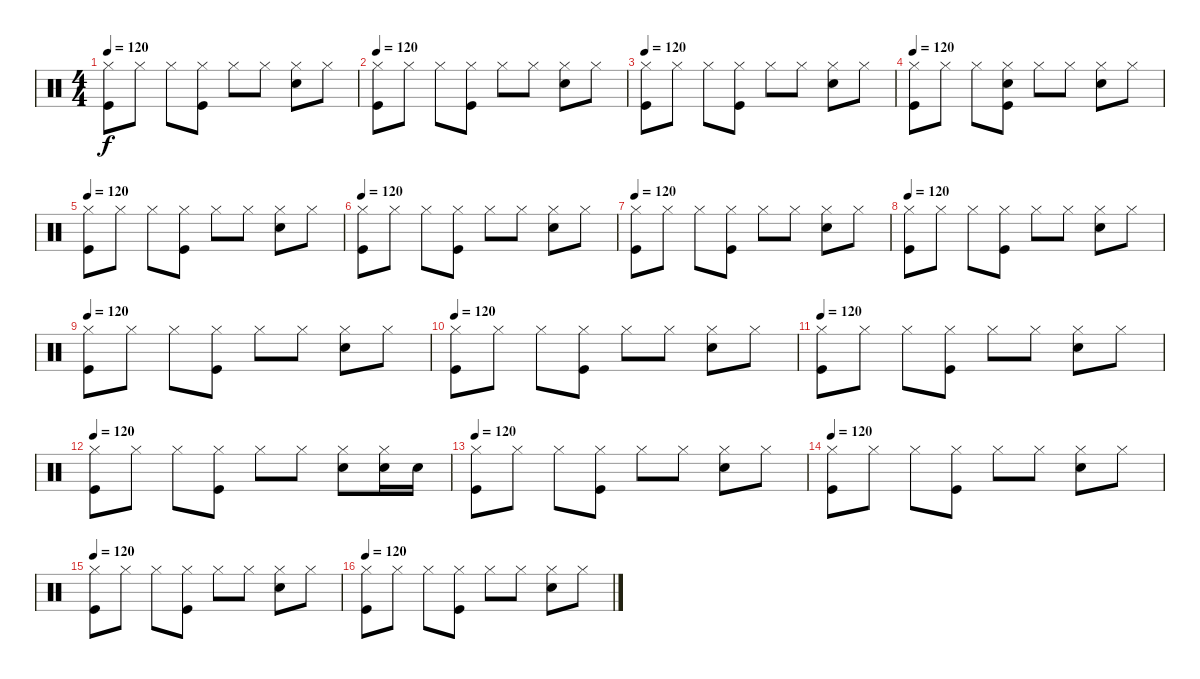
\track "" {instrument percussion}
\staff {score}
\articulation defaults
\ts (4 4)
\tempo 120
\clef neutral
\ks c
("Hi-Hat (closed)" "Kick (hit)").8{dy f} "Hi-Hat (closed)".8 "Hi-Hat (closed)".8 ("Kick (hit)" "Hi-Hat (closed)").8 "Hi-Hat (closed)".8 "Hi-Hat (closed)".8 ("Electric Snare (hit)" "Hi-Hat (closed)").8 "Hi-Hat (closed)".8 |
\tempo 120
("Hi-Hat (closed)" "Kick (hit)").8 "Hi-Hat (closed)".8 "Hi-Hat (closed)".8 ("Kick (hit)" "Hi-Hat (closed)").8 "Hi-Hat (closed)".8 "Hi-Hat (closed)".8 ("Electric Snare (hit)" "Hi-Hat (closed)").8 "Hi-Hat (closed)".8 |
\tempo 120
("Hi-Hat (closed)" "Kick (hit)").8 "Hi-Hat (closed)".8 "Hi-Hat (closed)".8 ("Kick (hit)" "Hi-Hat (closed)").8 "Hi-Hat (closed)".8 "Hi-Hat (closed)".8 ("Electric Snare (hit)" "Hi-Hat (closed)").8 "Hi-Hat (closed)".8 |
\tempo 120
("Hi-Hat (closed)" "Kick (hit)").8 "Hi-Hat (closed)".8 "Hi-Hat (closed)".8 ("Kick (hit)" "Electric Snare (hit)" "Hi-Hat (closed)").8 "Hi-Hat (closed)".8 "Hi-Hat (closed)".8 ("Electric Snare (hit)" "Hi-Hat (closed)").8 "Hi-Hat (closed)".8 |
\tempo 120
("Hi-Hat (closed)" "Kick (hit)").8 "Hi-Hat (closed)".8 "Hi-Hat (closed)".8 ("Kick (hit)" "Hi-Hat (closed)").8 "Hi-Hat (closed)".8 "Hi-Hat (closed)".8 ("Electric Snare (hit)" "Hi-Hat (closed)").8 "Hi-Hat (closed)".8 |
\tempo 120
("Hi-Hat (closed)" "Kick (hit)").8 "Hi-Hat (closed)".8 "Hi-Hat (closed)".8 ("Kick (hit)" "Hi-Hat (closed)").8 "Hi-Hat (closed)".8 "Hi-Hat (closed)".8 ("Electric Snare (hit)" "Hi-Hat (closed)").8 "Hi-Hat (closed)".8 |
\tempo 120
("Hi-Hat (closed)" "Kick (hit)").8 "Hi-Hat (closed)".8 "Hi-Hat (closed)".8 ("Kick (hit)" "Hi-Hat (closed)").8 "Hi-Hat (closed)".8 "Hi-Hat (closed)".8 ("Electric Snare (hit)" "Hi-Hat (closed)").8 "Hi-Hat (closed)".8 |
\tempo 120
("Hi-Hat (closed)" "Kick (hit)").8 "Hi-Hat (closed)".8 "Hi-Hat (closed)".8 ("Kick (hit)" "Hi-Hat (closed)").8 "Hi-Hat (closed)".8 "Hi-Hat (closed)".8 ("Electric Snare (hit)" "Hi-Hat (closed)").8 "Hi-Hat (closed)".8 |
\tempo 120
("Hi-Hat (closed)" "Kick (hit)").8 "Hi-Hat (closed)".8 "Hi-Hat (closed)".8 ("Kick (hit)" "Hi-Hat (closed)").8 "Hi-Hat (closed)".8 "Hi-Hat (closed)".8 ("Electric Snare (hit)" "Hi-Hat (closed)").8 "Hi-Hat (closed)".8 |
\tempo 120
("Hi-Hat (closed)" "Kick (hit)").8 "Hi-Hat (closed)".8 "Hi-Hat (closed)".8 ("Kick (hit)" "Hi-Hat (closed)").8 "Hi-Hat (closed)".8 "Hi-Hat (closed)".8 ("Electric Snare (hit)" "Hi-Hat (closed)").8 "Hi-Hat (closed)".8 |
\tempo 120
("Hi-Hat (closed)" "Kick (hit)").8 "Hi-Hat (closed)".8 "Hi-Hat (closed)".8 ("Kick (hit)" "Hi-Hat (closed)").8 "Hi-Hat (closed)".8 "Hi-Hat (closed)".8 ("Electric Snare (hit)" "Hi-Hat (closed)").8 "Hi-Hat (closed)".8 |
\tempo 120
("Hi-Hat (closed)" "Kick (hit)").8 "Hi-Hat (closed)".8 "Hi-Hat (closed)".8 ("Kick (hit)" "Hi-Hat (closed)").8 "Hi-Hat (closed)".8 "Hi-Hat (closed)".8 ("Electric Snare (hit)" "Hi-Hat (closed)").8 ("Electric Snare (hit)" "Hi-Hat (closed)").16 "Electric Snare (hit)".16 |
\tempo 120
("Hi-Hat (closed)" "Kick (hit)").8 "Hi-Hat (closed)".8 "Hi-Hat (closed)".8 ("Kick (hit)" "Hi-Hat (closed)").8 "Hi-Hat (closed)".8 "Hi-Hat (closed)".8 ("Electric Snare (hit)" "Hi-Hat (closed)").8 "Hi-Hat (closed)".8 |
\tempo 120
("Hi-Hat (closed)" "Kick (hit)").8 "Hi-Hat (closed)".8 "Hi-Hat (closed)".8 ("Kick (hit)" "Hi-Hat (closed)").8 "Hi-Hat (closed)".8 "Hi-Hat (closed)".8 ("Electric Snare (hit)" "Hi-Hat (closed)").8 "Hi-Hat (closed)".8 |
\tempo 120
("Hi-Hat (closed)" "Kick (hit)").8 "Hi-Hat (closed)".8 "Hi-Hat (closed)".8 ("Kick (hit)" "Hi-Hat (closed)").8 "Hi-Hat (closed)".8 "Hi-Hat (closed)".8 ("Electric Snare (hit)" "Hi-Hat (closed)").8 "Hi-Hat (closed)".8 |
\tempo 120
("Hi-Hat (closed)" "Kick (hit)").8 "Hi-Hat (closed)".8 "Hi-Hat (closed)".8 ("Kick (hit)" "Hi-Hat (closed)").8 "Hi-Hat (closed)".8 "Hi-Hat (closed)".8 ("Electric Snare (hit)" "Hi-Hat (closed)").8 "Hi-Hat (closed)".8
